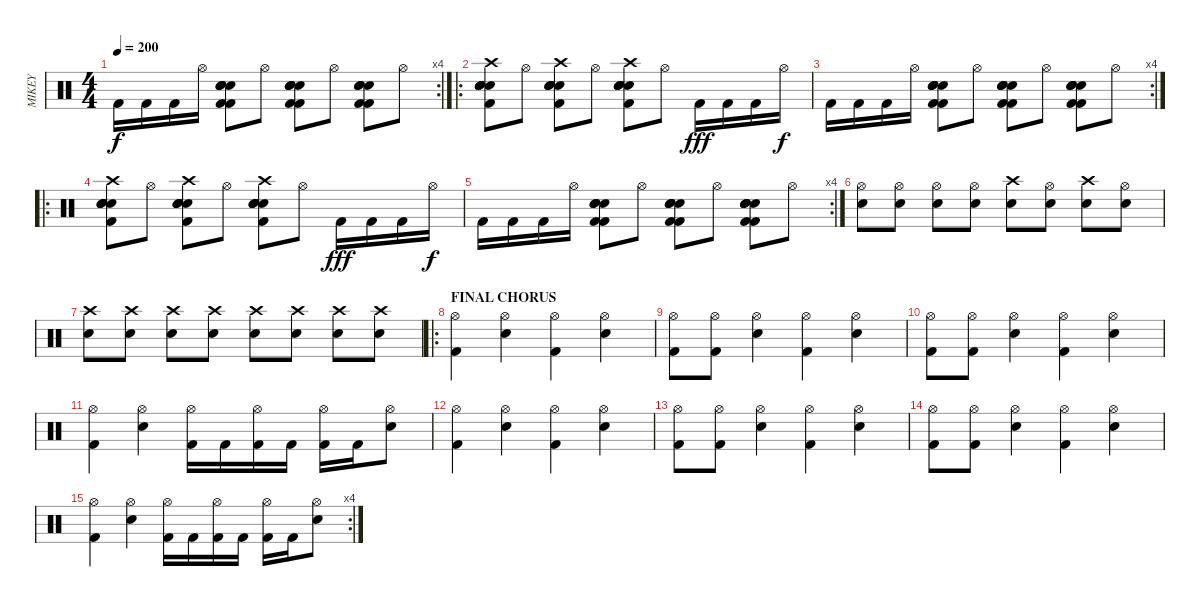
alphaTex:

\track ("MIKEY" "MIKEY") {instrument percussion}
\staff {score}
\articulation defaults
\rc 4
\ts (4 4)
\tempo 200
\clef neutral
\ks c "Kick (hit) 2".16{dy f} "Kick (hit) 2".16 "Kick (hit) 2".16 "Hi-Hat (open)".16
("Electric Snare (hit)" "Snare (hit) 2" "Kick (hit) 2" "Kick (hit) 2" "Snare (hit) 2" "Electric Snare (hit)").8 "Hi-Hat (open)".8 ("Electric Snare (hit)" "Snare (hit) 2" "Kick (hit) 2" "Kick (hit) 2" "Snare (hit) 2" "Electric Snare (hit)").8 "Hi-Hat (open)".8 ("Electric Snare (hit)" "Snare (hit) 2" "Kick (hit) 2" "Kick (hit) 2" "Snare (hit) 2" "Electric Snare (hit)").8 "Hi-Hat (open)".8 |
\ro
("Electric Snare (hit)" "Snare (hit) 2" "Kick (hit) 2" "Crash high (hit)" "Snare (hit) 2" "Electric Snare (hit)").8 "Hi-Hat (open)".8 ("Electric Snare (hit)" "Snare (hit) 2" "Kick (hit) 2" "Crash high (hit)" "Snare (hit) 2" "Electric Snare (hit)").8 "Hi-Hat (open)".8 ("Electric Snare (hit)" "Snare (hit) 2" "Kick (hit) 2" "Crash high (hit)" "Snare (hit) 2" "Electric Snare (hit)").8 "Hi-Hat (open)".8 "Kick (hit) 2".16{dy fff} "Kick (hit) 2".16 "Kick (hit) 2".16 "Hi-Hat (open)".16{dy f} |
\rc 4 "Kick (hit) 2".16 "Kick (hit) 2".16 "Kick (hit) 2".16 "Hi-Hat (open)".16
("Electric Snare (hit)" "Snare (hit) 2" "Kick (hit) 2" "Kick (hit) 2" "Snare (hit) 2" "Electric Snare (hit)").8 "Hi-Hat (open)".8 ("Electric Snare (hit)" "Snare (hit) 2" "Kick (hit) 2" "Kick (hit) 2" "Snare (hit) 2" "Electric Snare (hit)").8 "Hi-Hat (open)".8 ("Electric Snare (hit)" "Snare (hit) 2" "Kick (hit) 2" "Kick (hit) 2" "Snare (hit) 2" "Electric Snare (hit)").8 "Hi-Hat (open)".8 |
\ro
("Electric Snare (hit)" "Snare (hit) 2" "Kick (hit) 2" "Crash high (hit)" "Snare (hit) 2" "Electric Snare (hit)").8 "Hi-Hat (open)".8 ("Electric Snare (hit)" "Snare (hit) 2" "Kick (hit) 2" "Crash high (hit)" "Snare (hit) 2" "Electric Snare (hit)").8 "Hi-Hat (open)".8 ("Electric Snare (hit)" "Snare (hit) 2" "Kick (hit) 2" "Crash high (hit)" "Snare (hit) 2" "Electric Snare (hit)").8 "Hi-Hat (open)".8 "Kick (hit) 2".16{dy fff} "Kick (hit) 2".16 "Kick (hit) 2".16 "Hi-Hat (open)".16{dy f} |
\rc 4 "Kick (hit) 2".16 "Kick (hit) 2".16 "Kick (hit) 2".16 "Hi-Hat (open)".16
("Electric Snare (hit)" "Snare (hit) 2" "Kick (hit) 2" "Kick (hit) 2" "Snare (hit) 2" "Electric Snare (hit)").8 "Hi-Hat (open)".8 ("Electric Snare (hit)" "Snare (hit) 2" "Kick (hit) 2" "Kick (hit) 2" "Snare (hit) 2" "Electric Snare (hit)").8 "Hi-Hat (open)".8 ("Electric Snare (hit)" "Snare (hit) 2" "Kick (hit) 2" "Kick (hit) 2" "Snare (hit) 2" "Electric Snare (hit)").8 "Hi-Hat (open)".8 |
("Hi-Hat (open)" "Electric Snare (hit)").8 ("Hi-Hat (open)" "Electric Snare (hit)").8 ("Hi-Hat (open)" "Electric Snare (hit)").8 ("Hi-Hat (open)" "Electric Snare (hit)").8 ("Crash high (hit)" "Electric Snare (hit)").8 ("Hi-Hat (open)" "Electric Snare (hit)").8 ("Crash high (hit)" "Electric Snare (hit)").8 ("Hi-Hat (open)" "Electric Snare (hit)").8 |
("Crash high (hit)" "Electric Snare (hit)").8 ("Crash high (hit)" "Electric Snare (hit)").8 ("Crash high (hit)" "Electric Snare (hit)").8 ("Crash high (hit)" "Electric Snare (hit)").8 ("Crash high (hit)" "Electric Snare (hit)").8 ("Crash high (hit)" "Electric Snare (hit)").8 ("Crash high (hit)" "Electric Snare (hit)").8 ("Crash high (hit)" "Electric Snare (hit)").8 |
\ro
\section ("" "FINAL CHORUS")
("Hi-Hat (open)" "Kick (hit) 2").4 ("Hi-Hat (open)" "Snare (hit) 2").4 ("Hi-Hat (open)" "Kick (hit) 2").4 ("Hi-Hat (open)" "Snare (hit) 2").4 |
("Hi-Hat (open)" "Kick (hit) 2").8 ("Hi-Hat (open)" "Kick (hit) 2").8 ("Hi-Hat (open)" "Snare (hit) 2").4 ("Hi-Hat (open)" "Kick (hit) 2").4 ("Hi-Hat (open)" "Snare (hit) 2").4 |
("Hi-Hat (open)" "Kick (hit) 2").8 ("Hi-Hat (open)" "Kick (hit) 2").8 ("Hi-Hat (open)" "Snare (hit) 2").4 ("Hi-Hat (open)" "Kick (hit) 2").4 ("Hi-Hat (open)" "Snare (hit) 2").4 |
("Hi-Hat (open)" "Kick (hit) 2").4 ("Hi-Hat (open)" "Snare (hit) 2").4 ("Hi-Hat (open)" "Kick (hit) 2").16 "Kick (hit) 2".16 ("Hi-Hat (open)" "Kick (hit) 2").16 "Kick (hit) 2".16 ("Hi-Hat (open)" "Kick (hit) 2").16 "Kick (hit) 2".16 ("Hi-Hat (open)" "Snare (hit) 2").8 |
("Hi-Hat (open)" "Kick (hit) 2").4 ("Hi-Hat (open)" "Snare (hit) 2").4 ("Hi-Hat (open)" "Kick (hit) 2").4 ("Hi-Hat (open)" "Snare (hit) 2").4 |
("Hi-Hat (open)" "Kick (hit) 2").8 ("Hi-Hat (open)" "Kick (hit) 2").8 ("Hi-Hat (open)" "Snare (hit) 2").4 ("Hi-Hat (open)" "Kick (hit) 2").4 ("Hi-Hat (open)" "Snare (hit) 2").4 |
("Hi-Hat (open)" "Kick (hit) 2").8 ("Hi-Hat (open)" "Kick (hit) 2").8 ("Hi-Hat (open)" "Snare (hit) 2").4 ("Hi-Hat (open)" "Kick (hit) 2").4 ("Hi-Hat (open)" "Snare (hit) 2").4 |
\rc 4
("Hi-Hat (open)" "Kick (hit) 2").4 ("Hi-Hat (open)" "Snare (hit) 2").4 ("Hi-Hat (open)" "Kick (hit) 2").16 "Kick (hit) 2".16 ("Hi-Hat (open)" "Kick (hit) 2").16 "Kick (hit) 2".16 ("Hi-Hat (open)" "Kick (hit) 2").16 "Kick (hit) 2".16 ("Hi-Hat (open)" "Snare (hit) 2").8
